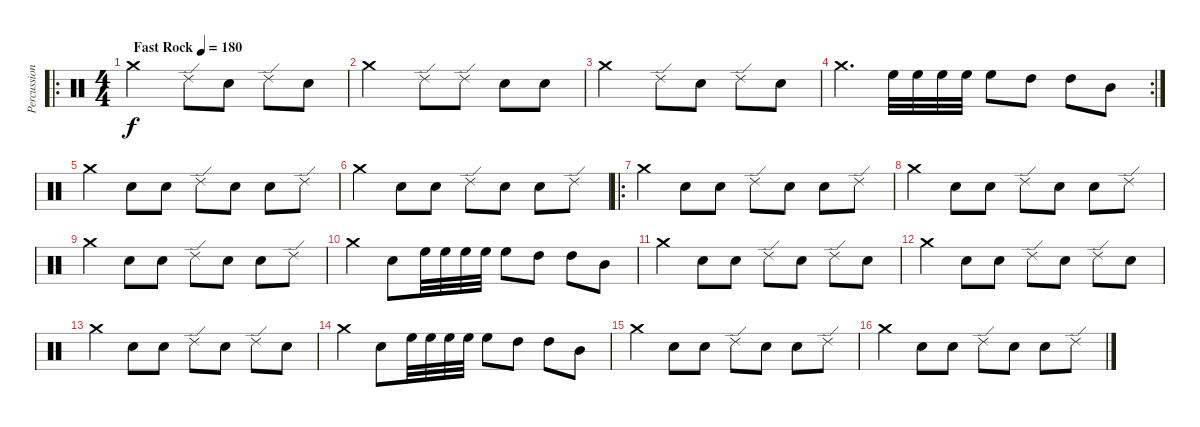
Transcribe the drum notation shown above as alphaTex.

\track ("Percussion" "Percussion") {instrument percussion}
\staff {score}
\articulation defaults
\ro
\ts (4 4)
\tempo (180 "Fast Rock")
\clef neutral
\ks c "Crash medium (hit)".2{dy f} "Ride (edge) 2".8 "Snare (hit) 2".8 "Ride (edge) 2".8 "Snare (hit) 2".8
|
"Crash medium (hit)".2 "Ride (edge) 2".8 "Ride (edge) 2".8 "Snare (hit) 2".8 "Snare (hit) 2".8 |
"Crash medium (hit)".2 "Ride (edge) 2".8 "Snare (hit) 2".8 "Ride (edge) 2".8 "Snare (hit) 2".8 |
\rc 2 "Crash medium (hit)".4{d} "High Floor Tom (hit)".32 "High Floor Tom (hit)".32 "High Floor Tom (hit)".32 "High Floor Tom (hit)".32 "High Floor Tom (hit)".8 "High Tom (hit)".8 "High Tom (hit)".8 "Mid Tom (hit)".8
|
"Crash medium (hit)".4 "Snare (hit) 2".8 "Snare (hit) 2".8 "Ride (edge) 2".8 "Snare (hit) 2".8 "Snare (hit) 2".8 "Ride (edge) 2".8 |
"Crash medium (hit)".4 "Snare (hit) 2".8 "Snare (hit) 2".8 "Ride (edge) 2".8 "Snare (hit) 2".8 "Snare (hit) 2".8 "Ride (edge) 2".8 |
\ro "Crash medium (hit)".4 "Snare (hit) 2".8 "Snare (hit) 2".8 "Ride (edge) 2".8 "Snare (hit) 2".8 "Snare (hit) 2".8 "Ride (edge) 2".8
|
"Crash medium (hit)".4 "Snare (hit) 2".8 "Snare (hit) 2".8 "Ride (edge) 2".8 "Snare (hit) 2".8 "Snare (hit) 2".8 "Ride (edge) 2".8 |
"Crash medium (hit)".4 "Snare (hit) 2".8 "Snare (hit) 2".8 "Ride (edge) 2".8 "Snare (hit) 2".8 "Snare (hit) 2".8 "Ride (edge) 2".8 |
"Crash medium (hit)".4 "Snare (hit) 2".8 "High Floor Tom (hit)".32 "High Floor Tom (hit)".32 "High Floor Tom (hit)".32 "High Floor Tom (hit)".32 "High Floor Tom (hit)".8 "High Tom (hit)".8 "High Tom (hit)".8 "Mid Tom (hit)".8 |
"Crash medium (hit)".4 "Snare (hit) 2".8 "Snare (hit) 2".8 "Ride (edge) 2".8 "Snare (hit) 2".8 "Ride (edge) 2".8 "Snare (hit) 2".8 |
"Crash medium (hit)".4 "Snare (hit) 2".8 "Snare (hit) 2".8 "Ride (edge) 2".8 "Snare (hit) 2".8 "Ride (edge) 2".8 "Snare (hit) 2".8 |
"Crash medium (hit)".4 "Snare (hit) 2".8 "Snare (hit) 2".8 "Ride (edge) 2".8 "Snare (hit) 2".8 "Ride (edge) 2".8 "Snare (hit) 2".8 |
"Crash medium (hit)".4 "Snare (hit) 2".8 "High Floor Tom (hit)".32 "High Floor Tom (hit)".32 "High Floor Tom (hit)".32 "High Floor Tom (hit)".32 "High Floor Tom (hit)".8 "High Tom (hit)".8 "High Tom (hit)".8 "Mid Tom (hit)".8 |
"Crash medium (hit)".4 "Snare (hit) 2".8 "Snare (hit) 2".8 "Ride (edge) 2".8 "Snare (hit) 2".8 "Snare (hit) 2".8 "Ride (edge) 2".8 |
"Crash medium (hit)".4 "Snare (hit) 2".8 "Snare (hit) 2".8 "Ride (edge) 2".8 "Snare (hit) 2".8 "Snare (hit) 2".8 "Ride (edge) 2".8
